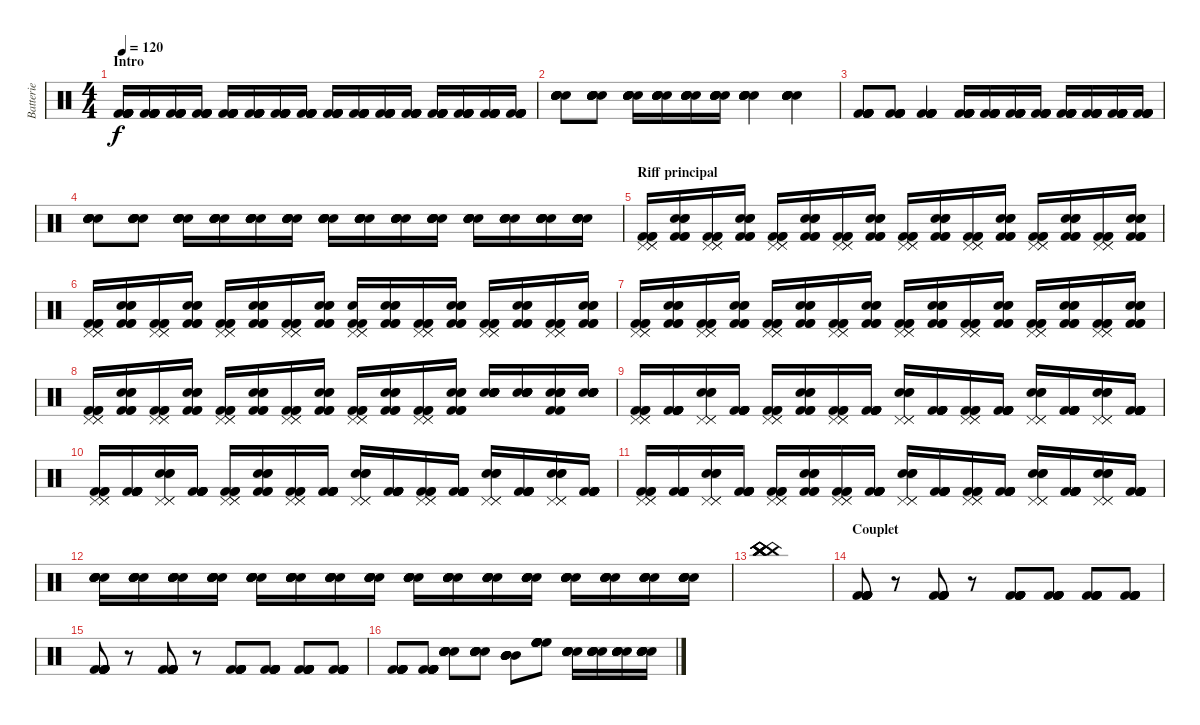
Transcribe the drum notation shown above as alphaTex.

\track ("Batterie" "Batterie") {instrument percussion}
\staff {score}
\articulation defaults
\ts (4 4)
\section ("" "Intro")
\tempo 120
\clef neutral
\ks c
("Kick (hit) 2" "Kick (hit) 2" "Kick (hit) 2" "Kick (hit) 2" "Kick (hit) 2" "Kick (hit) 2").16{dy f} ("Kick (hit) 2" "Kick (hit) 2" "Kick (hit) 2" "Kick (hit) 2" "Kick (hit) 2" "Kick (hit) 2").16 ("Kick (hit) 2" "Kick (hit) 2" "Kick (hit) 2" "Kick (hit) 2" "Kick (hit) 2" "Kick (hit) 2").16 ("Kick (hit) 2" "Kick (hit) 2" "Kick (hit) 2" "Kick (hit) 2" "Kick (hit) 2" "Kick (hit) 2").16 ("Kick (hit) 2" "Kick (hit) 2" "Kick (hit) 2" "Kick (hit) 2" "Kick (hit) 2" "Kick (hit) 2").16 ("Kick (hit) 2" "Kick (hit) 2" "Kick (hit) 2" "Kick (hit) 2" "Kick (hit) 2" "Kick (hit) 2").16 ("Kick (hit) 2" "Kick (hit) 2" "Kick (hit) 2" "Kick (hit) 2" "Kick (hit) 2" "Kick (hit) 2").16 ("Kick (hit) 2" "Kick (hit) 2" "Kick (hit) 2" "Kick (hit) 2" "Kick (hit) 2" "Kick (hit) 2").16 ("Kick (hit) 2" "Kick (hit) 2" "Kick (hit) 2" "Kick (hit) 2" "Kick (hit) 2" "Kick (hit) 2").16 ("Kick (hit) 2" "Kick (hit) 2" "Kick (hit) 2" "Kick (hit) 2" "Kick (hit) 2" "Kick (hit) 2").16 ("Kick (hit) 2" "Kick (hit) 2" "Kick (hit) 2" "Kick (hit) 2" "Kick (hit) 2" "Kick (hit) 2").16 ("Kick (hit) 2" "Kick (hit) 2" "Kick (hit) 2" "Kick (hit) 2" "Kick (hit) 2" "Kick (hit) 2").16 ("Kick (hit) 2" "Kick (hit) 2" "Kick (hit) 2" "Kick (hit) 2" "Kick (hit) 2" "Kick (hit) 2").16 ("Kick (hit) 2" "Kick (hit) 2" "Kick (hit) 2" "Kick (hit) 2" "Kick (hit) 2" "Kick (hit) 2").16 ("Kick (hit) 2" "Kick (hit) 2" "Kick (hit) 2" "Kick (hit) 2" "Kick (hit) 2" "Kick (hit) 2").16 ("Kick (hit) 2" "Kick (hit) 2" "Kick (hit) 2" "Kick (hit) 2" "Kick (hit) 2" "Kick (hit) 2").16 |
("Snare (hit) 2" "Snare (hit) 2" "Snare (hit) 2" "Snare (hit) 2" "Snare (hit) 2" "Snare (hit) 2").8 ("Snare (hit) 2" "Snare (hit) 2" "Snare (hit) 2" "Snare (hit) 2" "Snare (hit) 2" "Snare (hit) 2").8 ("Snare (hit) 2" "Snare (hit) 2" "Snare (hit) 2" "Snare (hit) 2" "Snare (hit) 2" "Snare (hit) 2").16 ("Snare (hit) 2" "Snare (hit) 2" "Snare (hit) 2" "Snare (hit) 2" "Snare (hit) 2" "Snare (hit) 2").16 ("Snare (hit) 2" "Snare (hit) 2" "Snare (hit) 2" "Snare (hit) 2" "Snare (hit) 2" "Snare (hit) 2").16 ("Snare (hit) 2" "Snare (hit) 2" "Snare (hit) 2" "Snare (hit) 2" "Snare (hit) 2" "Snare (hit) 2").16 ("Snare (hit) 2" "Snare (hit) 2" "Snare (hit) 2" "Snare (hit) 2" "Snare (hit) 2" "Snare (hit) 2").4 ("Snare (hit) 2" "Snare (hit) 2" "Snare (hit) 2" "Snare (hit) 2" "Snare (hit) 2" "Snare (hit) 2").4 |
("Kick (hit) 2" "Kick (hit) 2" "Kick (hit) 2" "Kick (hit) 2" "Kick (hit) 2" "Kick (hit) 2").8 ("Kick (hit) 2" "Kick (hit) 2" "Kick (hit) 2" "Kick (hit) 2" "Kick (hit) 2" "Kick (hit) 2").8 ("Kick (hit) 2" "Kick (hit) 2" "Kick (hit) 2" "Kick (hit) 2" "Kick (hit) 2" "Kick (hit) 2").4 ("Kick (hit) 2" "Kick (hit) 2" "Kick (hit) 2" "Kick (hit) 2" "Kick (hit) 2" "Kick (hit) 2").16 ("Kick (hit) 2" "Kick (hit) 2" "Kick (hit) 2" "Kick (hit) 2" "Kick (hit) 2" "Kick (hit) 2").16 ("Kick (hit) 2" "Kick (hit) 2" "Kick (hit) 2" "Kick (hit) 2" "Kick (hit) 2" "Kick (hit) 2").16 ("Kick (hit) 2" "Kick (hit) 2" "Kick (hit) 2" "Kick (hit) 2" "Kick (hit) 2" "Kick (hit) 2").16 ("Kick (hit) 2" "Kick (hit) 2" "Kick (hit) 2" "Kick (hit) 2" "Kick (hit) 2" "Kick (hit) 2").16 ("Kick (hit) 2" "Kick (hit) 2" "Kick (hit) 2" "Kick (hit) 2" "Kick (hit) 2" "Kick (hit) 2").16 ("Kick (hit) 2" "Kick (hit) 2" "Kick (hit) 2" "Kick (hit) 2" "Kick (hit) 2" "Kick (hit) 2").16 ("Kick (hit) 2" "Kick (hit) 2" "Kick (hit) 2" "Kick (hit) 2" "Kick (hit) 2" "Kick (hit) 2").16 |
("Snare (hit) 2" "Snare (hit) 2" "Snare (hit) 2" "Snare (hit) 2" "Snare (hit) 2" "Snare (hit) 2").8 ("Snare (hit) 2" "Snare (hit) 2" "Snare (hit) 2" "Snare (hit) 2" "Snare (hit) 2" "Snare (hit) 2").8 ("Snare (hit) 2" "Snare (hit) 2" "Snare (hit) 2" "Snare (hit) 2" "Snare (hit) 2" "Snare (hit) 2").16 ("Snare (hit) 2" "Snare (hit) 2" "Snare (hit) 2" "Snare (hit) 2" "Snare (hit) 2" "Snare (hit) 2").16 ("Snare (hit) 2" "Snare (hit) 2" "Snare (hit) 2" "Snare (hit) 2" "Snare (hit) 2" "Snare (hit) 2").16 ("Snare (hit) 2" "Snare (hit) 2" "Snare (hit) 2" "Snare (hit) 2" "Snare (hit) 2" "Snare (hit) 2").16 ("Snare (hit) 2" "Snare (hit) 2" "Snare (hit) 2" "Snare (hit) 2" "Snare (hit) 2" "Snare (hit) 2").16 ("Snare (hit) 2" "Snare (hit) 2" "Snare (hit) 2" "Snare (hit) 2" "Snare (hit) 2" "Snare (hit) 2").16 ("Snare (hit) 2" "Snare (hit) 2" "Snare (hit) 2" "Snare (hit) 2" "Snare (hit) 2" "Snare (hit) 2").16 ("Snare (hit) 2" "Snare (hit) 2" "Snare (hit) 2" "Snare (hit) 2" "Snare (hit) 2" "Snare (hit) 2").16 ("Snare (hit) 2" "Snare (hit) 2" "Snare (hit) 2" "Snare (hit) 2" "Snare (hit) 2" "Snare (hit) 2").16 ("Snare (hit) 2" "Snare (hit) 2" "Snare (hit) 2" "Snare (hit) 2" "Snare (hit) 2" "Snare (hit) 2").16 ("Snare (hit) 2" "Snare (hit) 2" "Snare (hit) 2" "Snare (hit) 2" "Snare (hit) 2" "Snare (hit) 2").16 ("Snare (hit) 2" "Snare (hit) 2" "Snare (hit) 2" "Snare (hit) 2" "Snare (hit) 2" "Snare (hit) 2").16 |
\section ("" "Riff principal")
("Pedal Hi-Hat (hit)" "Pedal Hi-Hat (hit)" "Pedal Hi-Hat (hit)" "Kick (hit) 2" "Kick (hit) 2" "Kick (hit) 2").16 ("Kick (hit) 2" "Kick (hit) 2" "Kick (hit) 2" "Snare (hit) 2" "Snare (hit) 2" "Snare (hit) 2").16 ("Pedal Hi-Hat (hit)" "Pedal Hi-Hat (hit)" "Pedal Hi-Hat (hit)" "Kick (hit) 2" "Kick (hit) 2" "Kick (hit) 2").16 ("Kick (hit) 2" "Kick (hit) 2" "Kick (hit) 2" "Snare (hit) 2" "Snare (hit) 2" "Snare (hit) 2").16 ("Pedal Hi-Hat (hit)" "Pedal Hi-Hat (hit)" "Pedal Hi-Hat (hit)" "Kick (hit) 2" "Kick (hit) 2" "Kick (hit) 2").16 ("Kick (hit) 2" "Kick (hit) 2" "Kick (hit) 2" "Snare (hit) 2" "Snare (hit) 2" "Snare (hit) 2").16 ("Pedal Hi-Hat (hit)" "Pedal Hi-Hat (hit)" "Pedal Hi-Hat (hit)" "Kick (hit) 2" "Kick (hit) 2" "Kick (hit) 2").16 ("Kick (hit) 2" "Kick (hit) 2" "Kick (hit) 2" "Snare (hit) 2" "Snare (hit) 2" "Snare (hit) 2").16 ("Pedal Hi-Hat (hit)" "Pedal Hi-Hat (hit)" "Pedal Hi-Hat (hit)" "Kick (hit) 2" "Kick (hit) 2" "Kick (hit) 2").16 ("Kick (hit) 2" "Kick (hit) 2" "Kick (hit) 2" "Snare (hit) 2" "Snare (hit) 2" "Snare (hit) 2").16 ("Pedal Hi-Hat (hit)" "Pedal Hi-Hat (hit)" "Pedal Hi-Hat (hit)" "Kick (hit) 2" "Kick (hit) 2" "Kick (hit) 2").16 ("Kick (hit) 2" "Kick (hit) 2" "Kick (hit) 2" "Snare (hit) 2" "Snare (hit) 2" "Snare (hit) 2").16 ("Pedal Hi-Hat (hit)" "Pedal Hi-Hat (hit)" "Pedal Hi-Hat (hit)" "Kick (hit) 2" "Kick (hit) 2" "Kick (hit) 2").16 ("Kick (hit) 2" "Kick (hit) 2" "Kick (hit) 2" "Snare (hit) 2" "Snare (hit) 2" "Snare (hit) 2").16 ("Pedal Hi-Hat (hit)" "Pedal Hi-Hat (hit)" "Pedal Hi-Hat (hit)" "Kick (hit) 2" "Kick (hit) 2" "Kick (hit) 2").16 ("Kick (hit) 2" "Kick (hit) 2" "Kick (hit) 2" "Snare (hit) 2" "Snare (hit) 2" "Snare (hit) 2").16 |
("Pedal Hi-Hat (hit)" "Pedal Hi-Hat (hit)" "Pedal Hi-Hat (hit)" "Kick (hit) 2" "Kick (hit) 2" "Kick (hit) 2").16 ("Kick (hit) 2" "Kick (hit) 2" "Kick (hit) 2" "Snare (hit) 2" "Snare (hit) 2" "Snare (hit) 2").16 ("Pedal Hi-Hat (hit)" "Pedal Hi-Hat (hit)" "Pedal Hi-Hat (hit)" "Kick (hit) 2" "Kick (hit) 2" "Kick (hit) 2").16 ("Kick (hit) 2" "Kick (hit) 2" "Kick (hit) 2" "Snare (hit) 2" "Snare (hit) 2" "Snare (hit) 2").16 ("Pedal Hi-Hat (hit)" "Pedal Hi-Hat (hit)" "Pedal Hi-Hat (hit)" "Kick (hit) 2" "Kick (hit) 2" "Kick (hit) 2").16 ("Kick (hit) 2" "Kick (hit) 2" "Kick (hit) 2" "Snare (hit) 2" "Snare (hit) 2" "Snare (hit) 2").16 ("Pedal Hi-Hat (hit)" "Pedal Hi-Hat (hit)" "Pedal Hi-Hat (hit)" "Kick (hit) 2" "Kick (hit) 2" "Kick (hit) 2").16 ("Kick (hit) 2" "Kick (hit) 2" "Kick (hit) 2" "Snare (hit) 2" "Snare (hit) 2" "Snare (hit) 2").16 ("Pedal Hi-Hat (hit)" "Pedal Hi-Hat (hit)" "Pedal Hi-Hat (hit)" "Snare (hit)" "Kick (hit) 2" "Kick (hit) 2").16 ("Kick (hit) 2" "Kick (hit) 2" "Kick (hit) 2" "Snare (hit) 2" "Snare (hit) 2" "Snare (hit) 2").16 ("Pedal Hi-Hat (hit)" "Pedal Hi-Hat (hit)" "Pedal Hi-Hat (hit)" "Kick (hit) 2" "Kick (hit) 2" "Kick (hit) 2").16 ("Kick (hit) 2" "Kick (hit) 2" "Kick (hit) 2" "Snare (hit) 2" "Snare (hit) 2" "Snare (hit) 2").16 ("Pedal Hi-Hat (hit)" "Pedal Hi-Hat (hit)" "Pedal Hi-Hat (hit)" "Kick (hit) 2" "Kick (hit) 2" "Kick (hit) 2").16 ("Kick (hit) 2" "Kick (hit) 2" "Kick (hit) 2" "Snare (hit) 2" "Snare (hit) 2" "Snare (hit) 2").16 ("Pedal Hi-Hat (hit)" "Pedal Hi-Hat (hit)" "Pedal Hi-Hat (hit)" "Kick (hit) 2" "Kick (hit) 2" "Kick (hit) 2").16 ("Kick (hit) 2" "Kick (hit) 2" "Kick (hit) 2" "Snare (hit) 2" "Snare (hit) 2" "Snare (hit) 2").16 |
("Pedal Hi-Hat (hit)" "Pedal Hi-Hat (hit)" "Pedal Hi-Hat (hit)" "Kick (hit) 2" "Kick (hit) 2" "Kick (hit) 2").16 ("Kick (hit) 2" "Kick (hit) 2" "Kick (hit) 2" "Snare (hit) 2" "Snare (hit) 2" "Snare (hit) 2").16 ("Pedal Hi-Hat (hit)" "Pedal Hi-Hat (hit)" "Pedal Hi-Hat (hit)" "Kick (hit) 2" "Kick (hit) 2" "Kick (hit) 2").16 ("Kick (hit) 2" "Kick (hit) 2" "Kick (hit) 2" "Snare (hit) 2" "Snare (hit) 2" "Snare (hit) 2").16 ("Pedal Hi-Hat (hit)" "Pedal Hi-Hat (hit)" "Pedal Hi-Hat (hit)" "Kick (hit) 2" "Kick (hit) 2" "Kick (hit) 2").16 ("Kick (hit) 2" "Kick (hit) 2" "Kick (hit) 2" "Snare (hit) 2" "Snare (hit) 2" "Snare (hit) 2").16 ("Pedal Hi-Hat (hit)" "Pedal Hi-Hat (hit)" "Pedal Hi-Hat (hit)" "Kick (hit) 2" "Kick (hit) 2" "Kick (hit) 2").16 ("Kick (hit) 2" "Kick (hit) 2" "Kick (hit) 2" "Snare (hit) 2" "Snare (hit) 2" "Snare (hit) 2").16 ("Pedal Hi-Hat (hit)" "Pedal Hi-Hat (hit)" "Pedal Hi-Hat (hit)" "Kick (hit) 2" "Kick (hit) 2" "Kick (hit) 2").16 ("Kick (hit) 2" "Kick (hit) 2" "Kick (hit) 2" "Snare (hit) 2" "Snare (hit) 2" "Snare (hit) 2").16 ("Pedal Hi-Hat (hit)" "Pedal Hi-Hat (hit)" "Pedal Hi-Hat (hit)" "Kick (hit) 2" "Kick (hit) 2" "Kick (hit) 2").16 ("Kick (hit) 2" "Kick (hit) 2" "Kick (hit) 2" "Snare (hit) 2" "Snare (hit) 2" "Snare (hit) 2").16 ("Pedal Hi-Hat (hit)" "Pedal Hi-Hat (hit)" "Pedal Hi-Hat (hit)" "Kick (hit) 2" "Kick (hit) 2" "Kick (hit) 2").16 ("Kick (hit) 2" "Kick (hit) 2" "Kick (hit) 2" "Snare (hit) 2" "Snare (hit) 2" "Snare (hit) 2").16 ("Pedal Hi-Hat (hit)" "Pedal Hi-Hat (hit)" "Pedal Hi-Hat (hit)" "Kick (hit) 2" "Kick (hit) 2" "Kick (hit) 2").16 ("Kick (hit) 2" "Kick (hit) 2" "Kick (hit) 2" "Snare (hit) 2" "Snare (hit) 2" "Snare (hit) 2").16 |
("Pedal Hi-Hat (hit)" "Pedal Hi-Hat (hit)" "Pedal Hi-Hat (hit)" "Kick (hit) 2" "Kick (hit) 2" "Kick (hit) 2").16 ("Kick (hit) 2" "Kick (hit) 2" "Kick (hit) 2" "Snare (hit) 2" "Snare (hit) 2" "Snare (hit) 2").16 ("Pedal Hi-Hat (hit)" "Pedal Hi-Hat (hit)" "Pedal Hi-Hat (hit)" "Kick (hit) 2" "Kick (hit) 2" "Kick (hit) 2").16 ("Kick (hit) 2" "Kick (hit) 2" "Kick (hit) 2" "Snare (hit) 2" "Snare (hit) 2" "Snare (hit) 2").16 ("Pedal Hi-Hat (hit)" "Pedal Hi-Hat (hit)" "Pedal Hi-Hat (hit)" "Kick (hit) 2" "Kick (hit) 2" "Kick (hit) 2").16 ("Kick (hit) 2" "Kick (hit) 2" "Kick (hit) 2" "Snare (hit) 2" "Snare (hit) 2" "Snare (hit) 2").16 ("Pedal Hi-Hat (hit)" "Pedal Hi-Hat (hit)" "Pedal Hi-Hat (hit)" "Kick (hit) 2" "Kick (hit) 2" "Kick (hit) 2").16 ("Kick (hit) 2" "Kick (hit) 2" "Kick (hit) 2" "Snare (hit) 2" "Snare (hit) 2" "Snare (hit) 2").16 ("Pedal Hi-Hat (hit)" "Pedal Hi-Hat (hit)" "Pedal Hi-Hat (hit)" "Kick (hit) 2" "Kick (hit) 2" "Kick (hit) 2").16 ("Kick (hit) 2" "Kick (hit) 2" "Kick (hit) 2" "Snare (hit) 2" "Snare (hit) 2" "Snare (hit) 2").16 ("Pedal Hi-Hat (hit)" "Pedal Hi-Hat (hit)" "Pedal Hi-Hat (hit)" "Kick (hit) 2" "Kick (hit) 2" "Kick (hit) 2").16 ("Kick (hit) 2" "Kick (hit) 2" "Kick (hit) 2" "Snare (hit) 2" "Snare (hit) 2" "Snare (hit) 2").16 ("Snare (hit) 2" "Snare (hit) 2" "Snare (hit) 2" "Snare (hit) 2" "Snare (hit) 2" "Snare (hit) 2").16 ("Snare (hit) 2" "Snare (hit) 2" "Snare (hit) 2" "Snare (hit) 2" "Snare (hit) 2" "Snare (hit) 2").16 ("Snare (hit) 2" "Snare (hit) 2" "Snare (hit) 2" "Snare (hit) 2" "Kick (hit) 2" "Kick (hit) 2").16 ("Snare (hit) 2" "Snare (hit) 2" "Snare (hit) 2" "Snare (hit) 2" "Snare (hit) 2" "Snare (hit) 2").16 |
("Pedal Hi-Hat (hit)" "Pedal Hi-Hat (hit)" "Pedal Hi-Hat (hit)" "Kick (hit) 2" "Kick (hit) 2" "Kick (hit) 2").16 ("Kick (hit) 2" "Kick (hit) 2" "Kick (hit) 2" "Kick (hit) 2" "Kick (hit) 2" "Kick (hit) 2").16 ("Pedal Hi-Hat (hit)" "Pedal Hi-Hat (hit)" "Pedal Hi-Hat (hit)" "Snare (hit) 2" "Snare (hit) 2" "Snare (hit) 2").16 ("Kick (hit) 2" "Kick (hit) 2" "Kick (hit) 2" "Kick (hit) 2" "Kick (hit) 2" "Kick (hit) 2").16 ("Pedal Hi-Hat (hit)" "Pedal Hi-Hat (hit)" "Pedal Hi-Hat (hit)" "Kick (hit) 2" "Kick (hit) 2" "Kick (hit) 2").16 ("Kick (hit) 2" "Kick (hit) 2" "Kick (hit) 2" "Snare (hit) 2" "Snare (hit) 2" "Snare (hit) 2").16 ("Pedal Hi-Hat (hit)" "Pedal Hi-Hat (hit)" "Pedal Hi-Hat (hit)" "Kick (hit) 2" "Kick (hit) 2" "Kick (hit) 2").16 ("Kick (hit) 2" "Kick (hit) 2" "Kick (hit) 2" "Kick (hit) 2" "Kick (hit) 2" "Kick (hit) 2").16 ("Pedal Hi-Hat (hit)" "Pedal Hi-Hat (hit)" "Pedal Hi-Hat (hit)" "Snare (hit) 2" "Snare (hit) 2" "Snare (hit) 2").16 ("Kick (hit) 2" "Kick (hit) 2" "Kick (hit) 2" "Kick (hit) 2" "Kick (hit) 2" "Kick (hit) 2").16 ("Pedal Hi-Hat (hit)" "Pedal Hi-Hat (hit)" "Pedal Hi-Hat (hit)" "Kick (hit) 2" "Kick (hit) 2" "Kick (hit) 2").16 ("Kick (hit) 2" "Kick (hit) 2" "Kick (hit) 2" "Kick (hit) 2" "Kick (hit) 2" "Kick (hit) 2").16 ("Pedal Hi-Hat (hit)" "Pedal Hi-Hat (hit)" "Pedal Hi-Hat (hit)" "Snare (hit) 2" "Snare (hit) 2" "Snare (hit) 2").16 ("Kick (hit) 2" "Kick (hit) 2" "Kick (hit) 2" "Kick (hit) 2" "Kick (hit) 2" "Kick (hit) 2").16 ("Pedal Hi-Hat (hit)" "Pedal Hi-Hat (hit)" "Pedal Hi-Hat (hit)" "Snare (hit) 2" "Snare (hit) 2" "Snare (hit) 2").16 ("Kick (hit) 2" "Kick (hit) 2" "Kick (hit) 2" "Kick (hit) 2" "Kick (hit) 2" "Kick (hit) 2").16 |
("Pedal Hi-Hat (hit)" "Pedal Hi-Hat (hit)" "Pedal Hi-Hat (hit)" "Kick (hit) 2" "Kick (hit) 2" "Kick (hit) 2").16 ("Kick (hit) 2" "Kick (hit) 2" "Kick (hit) 2" "Kick (hit) 2" "Kick (hit) 2" "Kick (hit) 2").16 ("Pedal Hi-Hat (hit)" "Pedal Hi-Hat (hit)" "Pedal Hi-Hat (hit)" "Snare (hit) 2" "Snare (hit) 2" "Snare (hit) 2").16 ("Kick (hit) 2" "Kick (hit) 2" "Kick (hit) 2" "Kick (hit) 2" "Kick (hit) 2" "Kick (hit) 2").16 ("Pedal Hi-Hat (hit)" "Pedal Hi-Hat (hit)" "Pedal Hi-Hat (hit)" "Kick (hit) 2" "Kick (hit) 2" "Kick (hit) 2").16 ("Kick (hit) 2" "Kick (hit) 2" "Kick (hit) 2" "Snare (hit) 2" "Snare (hit) 2" "Snare (hit) 2").16 ("Pedal Hi-Hat (hit)" "Pedal Hi-Hat (hit)" "Pedal Hi-Hat (hit)" "Kick (hit) 2" "Kick (hit) 2" "Kick (hit) 2").16 ("Kick (hit) 2" "Kick (hit) 2" "Kick (hit) 2" "Kick (hit) 2" "Kick (hit) 2" "Kick (hit) 2").16 ("Pedal Hi-Hat (hit)" "Pedal Hi-Hat (hit)" "Pedal Hi-Hat (hit)" "Snare (hit) 2" "Snare (hit) 2" "Snare (hit) 2").16 ("Kick (hit) 2" "Kick (hit) 2" "Kick (hit) 2" "Kick (hit) 2" "Kick (hit) 2" "Kick (hit) 2").16 ("Pedal Hi-Hat (hit)" "Pedal Hi-Hat (hit)" "Pedal Hi-Hat (hit)" "Kick (hit) 2" "Kick (hit) 2" "Kick (hit) 2").16 ("Kick (hit) 2" "Kick (hit) 2" "Kick (hit) 2" "Kick (hit) 2" "Kick (hit) 2" "Kick (hit) 2").16 ("Pedal Hi-Hat (hit)" "Pedal Hi-Hat (hit)" "Pedal Hi-Hat (hit)" "Snare (hit) 2" "Snare (hit) 2" "Snare (hit) 2").16 ("Kick (hit) 2" "Kick (hit) 2" "Kick (hit) 2" "Kick (hit) 2" "Kick (hit) 2" "Kick (hit) 2").16 ("Pedal Hi-Hat (hit)" "Pedal Hi-Hat (hit)" "Pedal Hi-Hat (hit)" "Snare (hit) 2" "Snare (hit) 2" "Snare (hit) 2").16 ("Kick (hit) 2" "Kick (hit) 2" "Kick (hit) 2" "Kick (hit) 2" "Kick (hit) 2" "Kick (hit) 2").16 |
("Pedal Hi-Hat (hit)" "Pedal Hi-Hat (hit)" "Pedal Hi-Hat (hit)" "Kick (hit) 2" "Kick (hit) 2" "Kick (hit) 2").16 ("Kick (hit) 2" "Kick (hit) 2" "Kick (hit) 2" "Kick (hit) 2" "Kick (hit) 2" "Kick (hit) 2").16 ("Pedal Hi-Hat (hit)" "Pedal Hi-Hat (hit)" "Pedal Hi-Hat (hit)" "Snare (hit) 2" "Snare (hit) 2" "Snare (hit) 2").16 ("Kick (hit) 2" "Kick (hit) 2" "Kick (hit) 2" "Kick (hit) 2" "Kick (hit) 2" "Kick (hit) 2").16 ("Pedal Hi-Hat (hit)" "Pedal Hi-Hat (hit)" "Pedal Hi-Hat (hit)" "Kick (hit) 2" "Kick (hit) 2" "Kick (hit) 2").16 ("Kick (hit) 2" "Kick (hit) 2" "Kick (hit) 2" "Snare (hit) 2" "Snare (hit) 2" "Snare (hit) 2").16 ("Pedal Hi-Hat (hit)" "Pedal Hi-Hat (hit)" "Pedal Hi-Hat (hit)" "Kick (hit) 2" "Kick (hit) 2" "Kick (hit) 2").16 ("Kick (hit) 2" "Kick (hit) 2" "Kick (hit) 2" "Kick (hit) 2" "Kick (hit) 2" "Kick (hit) 2").16 ("Pedal Hi-Hat (hit)" "Pedal Hi-Hat (hit)" "Pedal Hi-Hat (hit)" "Snare (hit) 2" "Snare (hit) 2" "Snare (hit) 2").16 ("Kick (hit) 2" "Kick (hit) 2" "Kick (hit) 2" "Kick (hit) 2" "Kick (hit) 2" "Kick (hit) 2").16 ("Pedal Hi-Hat (hit)" "Pedal Hi-Hat (hit)" "Pedal Hi-Hat (hit)" "Kick (hit) 2" "Kick (hit) 2" "Kick (hit) 2").16 ("Kick (hit) 2" "Kick (hit) 2" "Kick (hit) 2" "Kick (hit) 2" "Kick (hit) 2" "Kick (hit) 2").16 ("Pedal Hi-Hat (hit)" "Pedal Hi-Hat (hit)" "Pedal Hi-Hat (hit)" "Snare (hit) 2" "Snare (hit) 2" "Snare (hit) 2").16 ("Kick (hit) 2" "Kick (hit) 2" "Kick (hit) 2" "Kick (hit) 2" "Kick (hit) 2" "Kick (hit) 2").16 ("Pedal Hi-Hat (hit)" "Pedal Hi-Hat (hit)" "Pedal Hi-Hat (hit)" "Snare (hit) 2" "Snare (hit) 2" "Snare (hit) 2").16 ("Kick (hit) 2" "Kick (hit) 2" "Kick (hit) 2" "Kick (hit) 2" "Kick (hit) 2" "Kick (hit) 2").16 |
("Snare (hit) 2" "Snare (hit) 2" "Snare (hit) 2" "Snare (hit) 2" "Snare (hit) 2" "Snare (hit) 2").16 ("Snare (hit) 2" "Snare (hit) 2" "Snare (hit) 2" "Snare (hit) 2" "Snare (hit) 2" "Snare (hit) 2").16 ("Snare (hit) 2" "Snare (hit) 2" "Snare (hit) 2" "Snare (hit) 2" "Snare (hit) 2" "Snare (hit) 2").16 ("Snare (hit) 2" "Snare (hit) 2" "Snare (hit) 2" "Snare (hit) 2" "Snare (hit) 2" "Snare (hit) 2").16 ("Snare (hit) 2" "Snare (hit) 2" "Snare (hit) 2" "Snare (hit) 2" "Snare (hit) 2" "Snare (hit) 2").16 ("Snare (hit) 2" "Snare (hit) 2" "Snare (hit) 2" "Snare (hit) 2" "Snare (hit) 2" "Snare (hit) 2").16 ("Snare (hit) 2" "Snare (hit) 2" "Snare (hit) 2" "Snare (hit) 2" "Snare (hit) 2" "Snare (hit) 2").16 ("Snare (hit) 2" "Snare (hit) 2" "Snare (hit) 2" "Snare (hit) 2" "Snare (hit) 2" "Snare (hit) 2").16 ("Snare (hit) 2" "Snare (hit) 2" "Snare (hit) 2" "Snare (hit) 2" "Snare (hit) 2" "Snare (hit) 2").16 ("Snare (hit) 2" "Snare (hit) 2" "Snare (hit) 2" "Snare (hit) 2" "Snare (hit) 2" "Snare (hit) 2").16 ("Snare (hit) 2" "Snare (hit) 2" "Snare (hit) 2" "Snare (hit) 2" "Snare (hit) 2" "Snare (hit) 2").16 ("Snare (hit) 2" "Snare (hit) 2" "Snare (hit) 2" "Snare (hit) 2" "Snare (hit) 2" "Snare (hit) 2").16 ("Snare (hit) 2" "Snare (hit) 2" "Snare (hit) 2" "Snare (hit) 2" "Snare (hit) 2" "Snare (hit) 2").16 ("Snare (hit) 2" "Snare (hit) 2" "Snare (hit) 2" "Snare (hit) 2" "Snare (hit) 2" "Snare (hit) 2").16 ("Snare (hit) 2" "Snare (hit) 2" "Snare (hit) 2" "Snare (hit) 2" "Snare (hit) 2" "Snare (hit) 2").16 ("Snare (hit) 2" "Snare (hit) 2" "Snare (hit) 2" "Snare (hit) 2" "Snare (hit) 2" "Snare (hit) 2").16 |
("China (hit)" "China (hit)" "China (hit)" "China (hit)" "China (hit)" "China (hit)").1 |
\section ("" "Couplet")
("Kick (hit) 2" "Kick (hit) 2" "Kick (hit) 2" "Kick (hit) 2" "Kick (hit) 2" "Kick (hit) 2").8 r.8 ("Kick (hit) 2" "Kick (hit) 2" "Kick (hit) 2" "Kick (hit) 2" "Kick (hit) 2" "Kick (hit) 2").8 r.8 ("Kick (hit) 2" "Kick (hit) 2" "Kick (hit) 2" "Kick (hit) 2" "Kick (hit) 2" "Kick (hit) 2").8 ("Kick (hit) 2" "Kick (hit) 2" "Kick (hit) 2" "Kick (hit) 2" "Kick (hit) 2" "Kick (hit) 2").8 ("Kick (hit) 2" "Kick (hit) 2" "Kick (hit) 2" "Kick (hit) 2" "Kick (hit) 2" "Kick (hit) 2").8 ("Kick (hit) 2" "Kick (hit) 2" "Kick (hit) 2" "Kick (hit) 2" "Kick (hit) 2" "Kick (hit) 2").8 |
("Kick (hit) 2" "Kick (hit) 2" "Kick (hit) 2" "Kick (hit) 2" "Kick (hit) 2" "Kick (hit) 2").8 r.8 ("Kick (hit) 2" "Kick (hit) 2" "Kick (hit) 2" "Kick (hit) 2" "Kick (hit) 2" "Kick (hit) 2").8 r.8 ("Kick (hit) 2" "Kick (hit) 2" "Kick (hit) 2" "Kick (hit) 2" "Kick (hit) 2" "Kick (hit) 2").8 ("Kick (hit) 2" "Kick (hit) 2" "Kick (hit) 2" "Kick (hit) 2" "Kick (hit) 2" "Kick (hit) 2").8 ("Kick (hit) 2" "Kick (hit) 2" "Kick (hit) 2" "Kick (hit) 2" "Kick (hit) 2" "Kick (hit) 2").8 ("Kick (hit) 2" "Kick (hit) 2" "Kick (hit) 2" "Kick (hit) 2" "Kick (hit) 2" "Kick (hit) 2").8 |
("Kick (hit) 2" "Kick (hit) 2" "Kick (hit) 2" "Kick (hit) 2" "Kick (hit) 2" "Kick (hit) 2").8 ("Kick (hit) 2" "Kick (hit) 2" "Kick (hit) 2" "Kick (hit) 2" "Kick (hit) 2" "Kick (hit) 2").8 ("Snare (hit) 2" "Snare (hit) 2" "Snare (hit) 2" "Snare (hit) 2" "Snare (hit) 2" "Snare (hit) 2").8 ("Snare (hit) 2" "Snare (hit) 2" "Snare (hit) 2" "Snare (hit) 2" "Snare (hit) 2" "Snare (hit) 2").8 ("Mid Tom (hit)" "Mid Tom (hit)" "Mid Tom (hit)" "Mid Tom (hit)" "Mid Tom (hit)" "Mid Tom (hit)").8 ("High Floor Tom (hit)" "High Floor Tom (hit)" "High Floor Tom (hit)" "High Floor Tom (hit)" "High Floor Tom (hit)" "High Floor Tom (hit)").8 ("Snare (hit) 2" "Snare (hit) 2" "Snare (hit) 2" "Snare (hit) 2" "Snare (hit) 2" "Snare (hit) 2").16 ("Snare (hit) 2" "Snare (hit) 2" "Snare (hit) 2" "Snare (hit) 2" "Snare (hit) 2" "Snare (hit) 2").16 ("Snare (hit) 2" "Snare (hit) 2" "Snare (hit) 2" "Snare (hit) 2" "Snare (hit) 2" "Snare (hit) 2").16 ("Snare (hit) 2" "Snare (hit) 2" "Snare (hit) 2" "Snare (hit) 2" "Snare (hit) 2" "Snare (hit) 2").16
